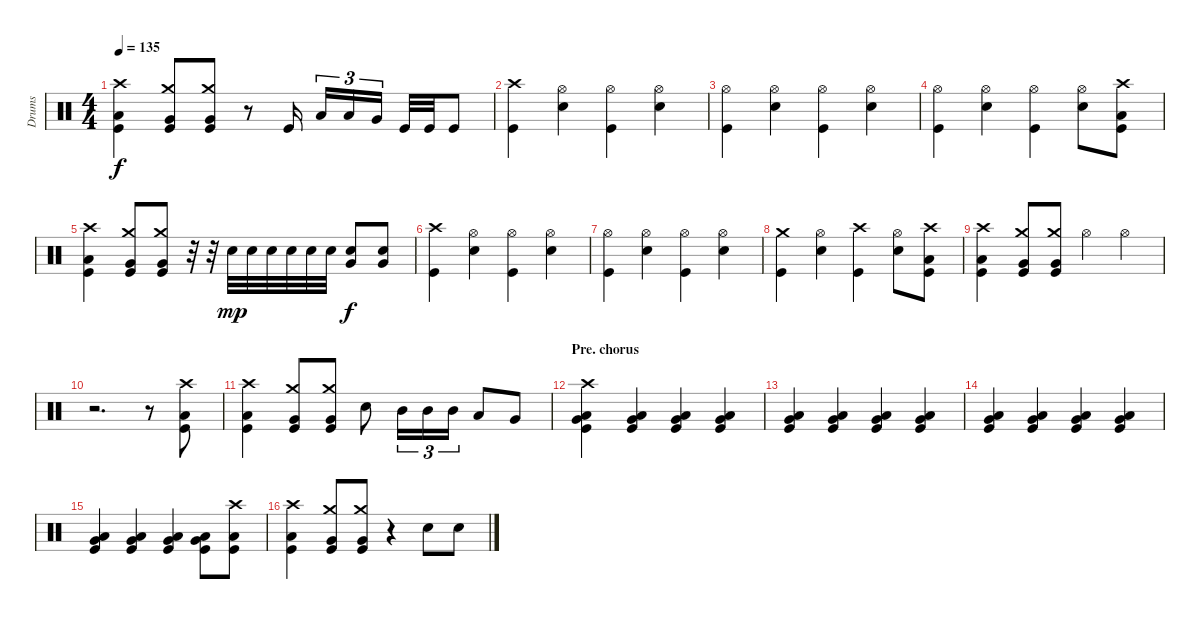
\track ("Drums" "Drums") {instrument percussion}
\staff {score}
\articulation defaults
\ts (4 4)
\tempo 135
\clef neutral
\ks c
("Crash high (hit)" "Low Floor Tom (hit)" "Kick (hit)").4{dy f} ("Crash medium (hit)" "Very Low Tom (hit)" "Kick (hit)").8 ("Crash medium (hit)" "Very Low Tom (hit)" "Kick (hit)").8 r.8 "Kick (hit)".16 "Low Tom (hit)".16{tu (3 2)} "Low Tom (hit)".16{tu (3 2)} "Very Low Tom (hit)".16{tu (3 2)} "Kick (hit)".32 "Kick (hit)".32 "Kick (hit)".8 |
("Crash high (hit)" "Kick (hit)").4 ("Hi-Hat (open)" "Snare (hit) 2").4 ("Hi-Hat (open)" "Kick (hit)").4 ("Hi-Hat (open)" "Snare (hit) 2").4 |
("Hi-Hat (open)" "Kick (hit)").4 ("Hi-Hat (open)" "Snare (hit) 2").4 ("Hi-Hat (open)" "Kick (hit)").4 ("Hi-Hat (open)" "Snare (hit) 2").4 |
("Hi-Hat (open)" "Kick (hit)").4 ("Hi-Hat (open)" "Snare (hit) 2").4 ("Hi-Hat (open)" "Kick (hit)").4 ("Hi-Hat (open)" "Snare (hit) 2").8 ("Crash high (hit)" "Low Floor Tom (hit)" "Kick (hit)").8 |
("Crash high (hit)" "Low Floor Tom (hit)" "Kick (hit)").4 ("Crash medium (hit)" "Very Low Tom (hit)" "Kick (hit)").8 ("Crash medium (hit)" "Very Low Tom (hit)" "Kick (hit)").8 r.32 r.32 "Snare (hit) 2".32{dy mp} "Snare (hit) 2".32 "Snare (hit) 2".32 "Snare (hit) 2".32 "Snare (hit) 2".32 "Snare (hit) 2".32 ("Snare (hit) 2" "Very Low Tom (hit)").8{dy f} ("Snare (hit) 2" "Very Low Tom (hit)").8 |
("Crash high (hit)" "Kick (hit)").4 ("Hi-Hat (open)" "Snare (hit) 2").4 ("Hi-Hat (open)" "Kick (hit)").4 ("Hi-Hat (open)" "Snare (hit) 2").4 |
("Hi-Hat (open)" "Kick (hit)").4 ("Hi-Hat (open)" "Snare (hit) 2").4 ("Hi-Hat (open)" "Kick (hit)").4 ("Hi-Hat (open)" "Snare (hit) 2").4 |
("Crash medium (hit)" "Kick (hit)").4 ("Hi-Hat (open)" "Snare (hit) 2").4 ("Crash high (hit)" "Kick (hit)").4 ("Hi-Hat (open)" "Snare (hit) 2").8 ("Crash high (hit)" "Low Floor Tom (hit)" "Kick (hit)").8 |
("Crash high (hit)" "Low Floor Tom (hit)" "Kick (hit)").4 ("Crash medium (hit)" "Very Low Tom (hit)" "Kick (hit)").8 ("Crash medium (hit)" "Very Low Tom (hit)" "Kick (hit)").8 "Hi-Hat (open)".4 "Hi-Hat (open)".4 |
r.2{d} r.8 ("Crash high (hit)" "Low Floor Tom (hit)" "Kick (hit)").8 |
("Crash high (hit)" "Low Floor Tom (hit)" "Kick (hit)").4 ("Crash medium (hit)" "Very Low Tom (hit)" "Kick (hit)").8 ("Crash medium (hit)" "Very Low Tom (hit)" "Kick (hit)").8 "Snare (hit) 2".8 "Mid Tom (hit)".16{tu (3 2)} "Mid Tom (hit)".16{tu (3 2)} "Mid Tom (hit)".16{tu (3 2)} "Low Tom (hit)".8 "Very Low Tom (hit)".8 |
\section ("" "Pre. chorus")
("Crash high (hit)" "Low Floor Tom (hit)" "Very Low Tom (hit)" "Kick (hit)").4 ("Low Floor Tom (hit)" "Very Low Tom (hit)" "Kick (hit)").4 ("Low Floor Tom (hit)" "Very Low Tom (hit)" "Kick (hit)").4 ("Low Floor Tom (hit)" "Very Low Tom (hit)" "Kick (hit)").4 |
("Low Floor Tom (hit)" "Very Low Tom (hit)" "Kick (hit)").4 ("Low Floor Tom (hit)" "Very Low Tom (hit)" "Kick (hit)").4 ("Low Floor Tom (hit)" "Very Low Tom (hit)" "Kick (hit)").4 ("Low Floor Tom (hit)" "Very Low Tom (hit)" "Kick (hit)").4 |
("Low Floor Tom (hit)" "Very Low Tom (hit)" "Kick (hit)").4 ("Low Floor Tom (hit)" "Very Low Tom (hit)" "Kick (hit)").4 ("Low Floor Tom (hit)" "Very Low Tom (hit)" "Kick (hit)").4 ("Low Floor Tom (hit)" "Very Low Tom (hit)" "Kick (hit)").4 |
("Low Floor Tom (hit)" "Very Low Tom (hit)" "Kick (hit)").4 ("Low Floor Tom (hit)" "Very Low Tom (hit)" "Kick (hit)").4 ("Low Floor Tom (hit)" "Very Low Tom (hit)" "Kick (hit)").4 ("Low Floor Tom (hit)" "Very Low Tom (hit)" "Kick (hit)").8 ("Crash high (hit)" "Low Floor Tom (hit)" "Kick (hit)").8 |
("Crash high (hit)" "Low Floor Tom (hit)" "Kick (hit)").4 ("Crash medium (hit)" "Very Low Tom (hit)" "Kick (hit)").8 ("Crash medium (hit)" "Very Low Tom (hit)" "Kick (hit)").8 r.4 "Snare (hit) 2".8 "Snare (hit) 2".8
